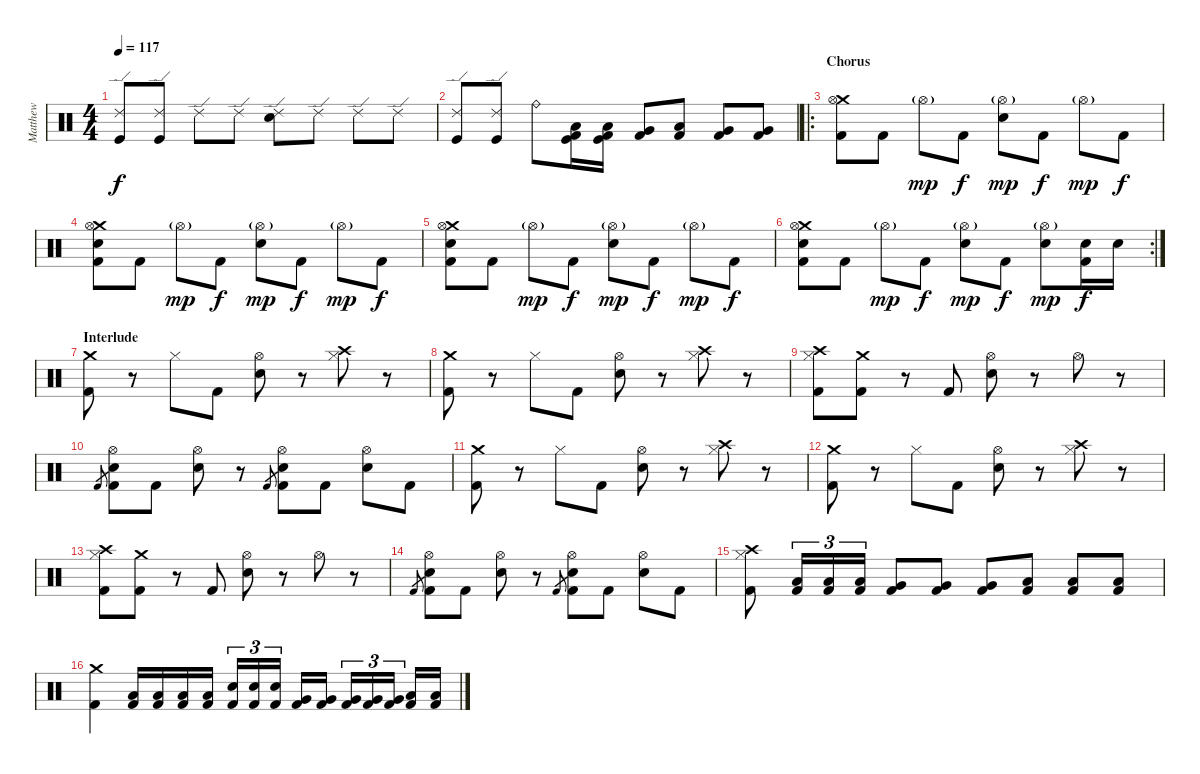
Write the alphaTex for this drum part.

\track ("Matthew" "Matthew") {instrument percussion}
\staff {score}
\articulation defaults
\ts (4 4)
\tempo 117
\clef neutral
\ks c
("Ride (edge) 2" "Kick (hit)").8{dy f} ("Ride (edge) 2" "Kick (hit)").8 "Ride (edge) 2".8 "Ride (edge) 2".8 ("Ride (edge) 2" "Electric Snare (hit)").8 "Ride (edge) 2".8 "Ride (edge) 2".8 "Ride (edge) 2".8 |
("Ride (edge) 2" "Kick (hit)").8 ("Ride (edge) 2" "Kick (hit)").8 "Ride (bell)".8 ("Low Floor Tom (hit)" "Kick (hit) 2" "Kick (hit)").16 ("Low Floor Tom (hit)" "Kick (hit) 2" "Kick (hit)").16 ("Very Low Tom (hit)" "Kick (hit) 2").8 ("Low Tom (hit)" "Kick (hit) 2").8 ("Very Low Tom (hit)" "Kick (hit) 2").8 ("Very Low Tom (hit)" "Kick (hit) 2").8 |
\ro
\section ("" "Chorus")
("Crash medium (hit)" "Hi-Hat (open)" "Kick (hit) 2").8 "Kick (hit) 2".8 "Hi-Hat (open)"{g}.8{dy mp} "Kick (hit) 2".8{dy f} ("Hi-Hat (open)"{g} "Electric Snare (hit)").8{dy mp} "Kick (hit) 2".8{dy f} "Hi-Hat (open)"{g}.8{dy mp} "Kick (hit) 2".8{dy f} |
("Crash medium (hit)" "Hi-Hat (open)" "Electric Snare (hit)" "Kick (hit) 2").8 "Kick (hit) 2".8 "Hi-Hat (open)"{g}.8{dy mp} "Kick (hit) 2".8{dy f} ("Hi-Hat (open)"{g} "Electric Snare (hit)").8{dy mp} "Kick (hit) 2".8{dy f} "Hi-Hat (open)"{g}.8{dy mp} "Kick (hit) 2".8{dy f} |
("Crash medium (hit)" "Hi-Hat (open)" "Electric Snare (hit)" "Kick (hit) 2").8 "Kick (hit) 2".8 "Hi-Hat (open)"{g}.8{dy mp} "Kick (hit) 2".8{dy f} ("Hi-Hat (open)"{g} "Electric Snare (hit)").8{dy mp} "Kick (hit) 2".8{dy f} "Hi-Hat (open)"{g}.8{dy mp} "Kick (hit) 2".8{dy f} |
\rc 2
("Crash medium (hit)" "Hi-Hat (open)" "Electric Snare (hit)" "Kick (hit) 2").8 "Kick (hit) 2".8 "Hi-Hat (open)"{g}.8{dy mp} "Kick (hit) 2".8{dy f} ("Hi-Hat (open)"{g} "Electric Snare (hit)").8{dy mp} "Kick (hit) 2".8{dy f} ("Hi-Hat (open)"{g} "Electric Snare (hit)").8{dy mp} ("Electric Snare (hit)" "Kick (hit) 2").16{dy f} "Electric Snare (hit)".16 |
\section ("" "Interlude")
("Crash medium (hit)" "Kick (hit) 2").8 r.8 "Hi-Hat (closed)".8 "Kick (hit) 2".8 ("Hi-Hat (open)" "Electric Snare (hit)").8 r.8 ("Crash high (hit)" "Hi-Hat (closed)").8 r.8 |
("Crash medium (hit)" "Kick (hit) 2").8 r.8 "Hi-Hat (closed)".8 "Kick (hit) 2".8 ("Hi-Hat (open)" "Electric Snare (hit)").8 r.8 ("Crash high (hit)" "Hi-Hat (closed)").8 r.8 |
("Crash high (hit)" "Hi-Hat (closed)" "Kick (hit) 2").8 ("Crash medium (hit)" "Kick (hit) 2").8 r.8 "Kick (hit) 2".8 ("Hi-Hat (open)" "Electric Snare (hit)").8 r.8 "Hi-Hat (open)".8 r.8 |
"Kick (hit) 2".8{gr} ("Hi-Hat (open)" "Electric Snare (hit)" "Kick (hit) 2").8 "Kick (hit) 2".8 ("Hi-Hat (open)" "Electric Snare (hit)").8 r.8 "Kick (hit) 2".8{gr} ("Hi-Hat (open)" "Electric Snare (hit)" "Kick (hit) 2").8 "Kick (hit) 2".8 ("Hi-Hat (open)" "Electric Snare (hit)").8 "Kick (hit) 2".8 |
("Crash medium (hit)" "Kick (hit) 2").8 r.8 "Hi-Hat (closed)".8 "Kick (hit) 2".8 ("Hi-Hat (open)" "Electric Snare (hit)").8 r.8 ("Crash high (hit)" "Hi-Hat (closed)").8 r.8 |
("Crash medium (hit)" "Kick (hit) 2").8 r.8 "Hi-Hat (closed)".8 "Kick (hit) 2".8 ("Hi-Hat (open)" "Electric Snare (hit)").8 r.8 ("Crash high (hit)" "Hi-Hat (closed)").8 r.8 |
("Crash high (hit)" "Hi-Hat (closed)" "Kick (hit) 2").8 ("Crash medium (hit)" "Kick (hit) 2").8 r.8 "Kick (hit) 2".8 ("Hi-Hat (open)" "Electric Snare (hit)").8 r.8 "Hi-Hat (open)".8 r.8 |
"Kick (hit) 2".8{gr} ("Hi-Hat (open)" "Electric Snare (hit)" "Kick (hit) 2").8 "Kick (hit) 2".8 ("Hi-Hat (open)" "Electric Snare (hit)").8 r.8 "Kick (hit) 2".8{gr} ("Hi-Hat (open)" "Electric Snare (hit)" "Kick (hit) 2").8 "Kick (hit) 2".8 ("Hi-Hat (open)" "Electric Snare (hit)").8 "Kick (hit) 2".8 |
("Crash high (hit)" "Hi-Hat (closed)" "Kick (hit) 2").8 ("Low Tom (hit)" "Kick (hit) 2").16{tu (3 2)} ("Low Tom (hit)" "Kick (hit) 2").16{tu (3 2)} ("Low Tom (hit)" "Kick (hit) 2").16{tu (3 2)} ("Very Low Tom (hit)" "Kick (hit) 2").8 ("Very Low Tom (hit)" "Kick (hit) 2").8 ("Very Low Tom (hit)" "Kick (hit) 2").8 ("Low Floor Tom (hit)" "Kick (hit) 2").8 ("Low Floor Tom (hit)" "Kick (hit) 2").8 ("Low Floor Tom (hit)" "Kick (hit) 2").8 |
("Crash medium (hit)" "Kick (hit) 2").4 ("Low Tom (hit)" "Kick (hit) 2").16 ("Low Tom (hit)" "Kick (hit) 2").16 ("Low Tom (hit)" "Kick (hit) 2").16 ("Low Tom (hit)" "Kick (hit) 2").16 ("Electric Snare (hit)" "Kick (hit) 2").16{tu (3 2)} ("Electric Snare (hit)" "Kick (hit) 2").16{tu (3 2)} ("Electric Snare (hit)" "Kick (hit) 2").16{tu (3 2)} ("Very Low Tom (hit)" "Kick (hit) 2").16 ("Very Low Tom (hit)" "Kick (hit) 2").16 ("Very Low Tom (hit)" "Kick (hit) 2").16{tu (3 2)} ("Very Low Tom (hit)" "Kick (hit) 2").16{tu (3 2)} ("Very Low Tom (hit)" "Kick (hit) 2").16{tu (3 2)} ("Low Floor Tom (hit)" "Kick (hit) 2").16 ("Low Floor Tom (hit)" "Kick (hit) 2").16
